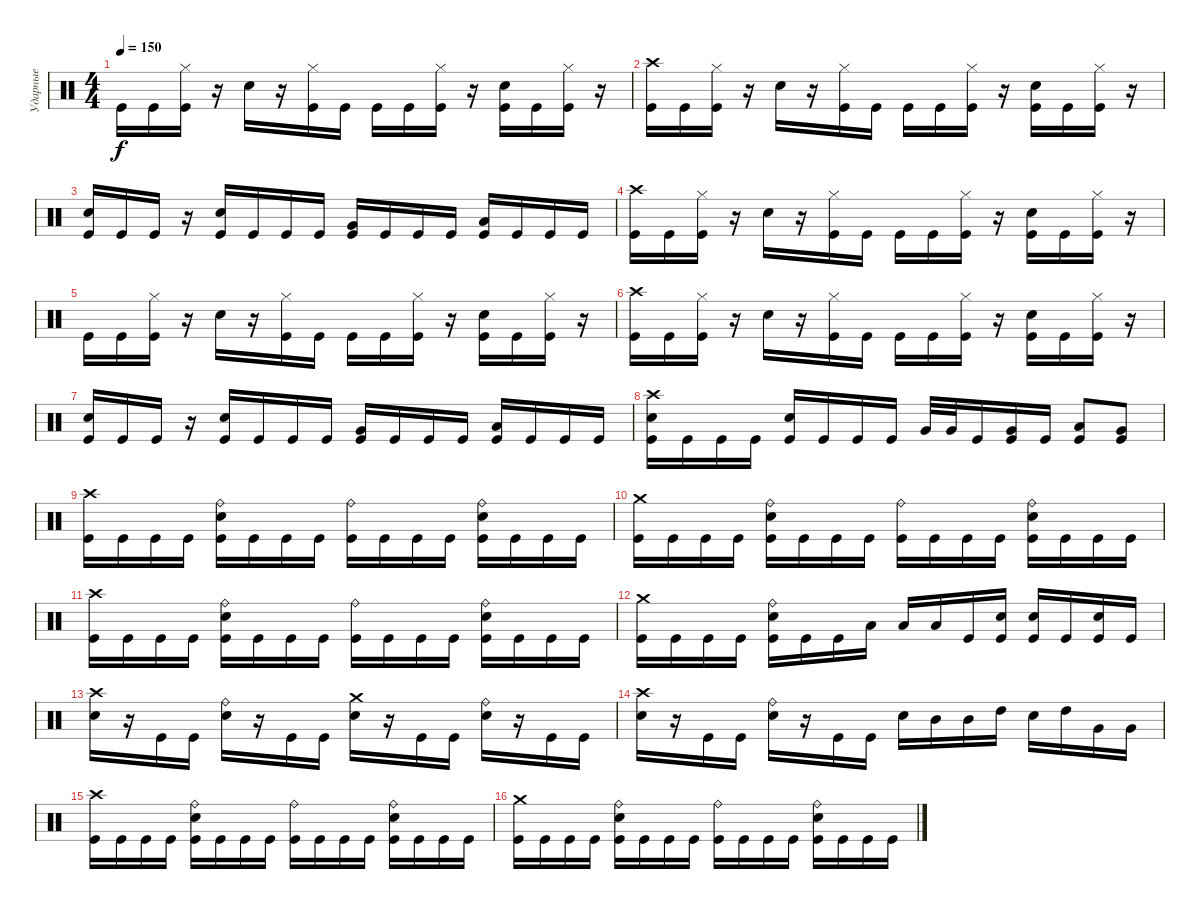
\track ("Ударные" "Ударные") {instrument percussion}
\staff {score}
\articulation defaults
\ts (4 4)
\tempo 150
\clef neutral
\ks c "Kick (hit)".16{dy f} "Kick (hit)".16
("Hi-Hat (closed)" "Kick (hit)").16 r.16 "Electric Snare (hit)".16 r.16 ("Hi-Hat (closed)" "Kick (hit)").16 "Kick (hit)".16 "Kick (hit)".16 "Kick (hit)".16 ("Hi-Hat (closed)" "Kick (hit)").16 r.16 ("Electric Snare (hit)" "Kick (hit)").16 "Kick (hit)".16 ("Hi-Hat (closed)" "Kick (hit)").16 r.16 |
("Crash high (hit)" "Kick (hit)").16 "Kick (hit)".16 ("Hi-Hat (closed)" "Kick (hit)").16 r.16 "Electric Snare (hit)".16 r.16 ("Hi-Hat (closed)" "Kick (hit)").16 "Kick (hit)".16 "Kick (hit)".16 "Kick (hit)".16 ("Hi-Hat (closed)" "Kick (hit)").16 r.16 ("Electric Snare (hit)" "Kick (hit)").16 "Kick (hit)".16 ("Hi-Hat (closed)" "Kick (hit)").16 r.16 |
("Electric Snare (hit)" "Kick (hit)").16 "Kick (hit)".16 "Kick (hit)".16 r.16 ("Electric Snare (hit)" "Kick (hit)").16 "Kick (hit)".16 "Kick (hit)".16 "Kick (hit)".16 ("Very Low Tom (hit)" "Kick (hit)").16 "Kick (hit)".16 "Kick (hit)".16 "Kick (hit)".16 ("Low Tom (hit)" "Kick (hit)").16 "Kick (hit)".16 "Kick (hit)".16 "Kick (hit)".16 |
("Crash high (hit)" "Kick (hit)").16 "Kick (hit)".16 ("Hi-Hat (closed)" "Kick (hit)").16 r.16 "Electric Snare (hit)".16 r.16 ("Hi-Hat (closed)" "Kick (hit)").16 "Kick (hit)".16 "Kick (hit)".16 "Kick (hit)".16 ("Hi-Hat (closed)" "Kick (hit)").16 r.16 ("Electric Snare (hit)" "Kick (hit)").16 "Kick (hit)".16 ("Hi-Hat (closed)" "Kick (hit)").16 r.16 |
"Kick (hit)".16 "Kick (hit)".16 ("Hi-Hat (closed)" "Kick (hit)").16 r.16 "Electric Snare (hit)".16 r.16 ("Hi-Hat (closed)" "Kick (hit)").16 "Kick (hit)".16 "Kick (hit)".16 "Kick (hit)".16 ("Hi-Hat (closed)" "Kick (hit)").16 r.16 ("Electric Snare (hit)" "Kick (hit)").16 "Kick (hit)".16 ("Hi-Hat (closed)" "Kick (hit)").16 r.16 |
("Crash high (hit)" "Kick (hit)").16 "Kick (hit)".16 ("Hi-Hat (closed)" "Kick (hit)").16 r.16 "Electric Snare (hit)".16 r.16 ("Hi-Hat (closed)" "Kick (hit)").16 "Kick (hit)".16 "Kick (hit)".16 "Kick (hit)".16 ("Hi-Hat (closed)" "Kick (hit)").16 r.16 ("Electric Snare (hit)" "Kick (hit)").16 "Kick (hit)".16 ("Hi-Hat (closed)" "Kick (hit)").16 r.16 |
("Electric Snare (hit)" "Kick (hit)").16 "Kick (hit)".16 "Kick (hit)".16 r.16 ("Electric Snare (hit)" "Kick (hit)").16 "Kick (hit)".16 "Kick (hit)".16 "Kick (hit)".16 ("Very Low Tom (hit)" "Kick (hit)").16 "Kick (hit)".16 "Kick (hit)".16 "Kick (hit)".16 ("Low Tom (hit)" "Kick (hit)").16 "Kick (hit)".16 "Kick (hit)".16 "Kick (hit)".16 |
("Crash high (hit)" "Electric Snare (hit)" "Kick (hit)").16 "Kick (hit)".16 "Kick (hit)".16 "Kick (hit)".16 ("Electric Snare (hit)" "Kick (hit)").16 "Kick (hit)".16 "Kick (hit)".16 "Kick (hit)".16 "Very Low Tom (hit)".32 "Very Low Tom (hit)".32 "Kick (hit)".16 ("Very Low Tom (hit)" "Kick (hit)").16 "Kick (hit)".16 ("Low Tom (hit)" "Kick (hit)").8 ("Very Low Tom (hit)" "Kick (hit)").8 |
("Crash high (hit)" "Kick (hit)").16 "Kick (hit)".16 "Kick (hit)".16 "Kick (hit)".16 ("Ride (bell)" "Electric Snare (hit)" "Kick (hit)").16 "Kick (hit)".16 "Kick (hit)".16 "Kick (hit)".16 ("Ride (bell)" "Kick (hit)").16 "Kick (hit)".16 "Kick (hit)".16 "Kick (hit)".16 ("Ride (bell)" "Electric Snare (hit)" "Kick (hit)").16 "Kick (hit)".16 "Kick (hit)".16 "Kick (hit)".16 |
("Crash medium (hit)" "Kick (hit)").16 "Kick (hit)".16 "Kick (hit)".16 "Kick (hit)".16 ("Ride (bell)" "Electric Snare (hit)" "Kick (hit)").16 "Kick (hit)".16 "Kick (hit)".16 "Kick (hit)".16 ("Ride (bell)" "Kick (hit)").16 "Kick (hit)".16 "Kick (hit)".16 "Kick (hit)".16 ("Ride (bell)" "Electric Snare (hit)" "Kick (hit)").16 "Kick (hit)".16 "Kick (hit)".16 "Kick (hit)".16 |
("Crash high (hit)" "Kick (hit)").16 "Kick (hit)".16 "Kick (hit)".16 "Kick (hit)".16 ("Ride (bell)" "Electric Snare (hit)" "Kick (hit)").16 "Kick (hit)".16 "Kick (hit)".16 "Kick (hit)".16 ("Ride (bell)" "Kick (hit)").16 "Kick (hit)".16 "Kick (hit)".16 "Kick (hit)".16 ("Ride (bell)" "Electric Snare (hit)" "Kick (hit)").16 "Kick (hit)".16 "Kick (hit)".16 "Kick (hit)".16 |
("Crash medium (hit)" "Kick (hit)").16 "Kick (hit)".16 "Kick (hit)".16 "Kick (hit)".16 ("Ride (bell)" "Electric Snare (hit)" "Kick (hit)").16 "Kick (hit)".16 "Kick (hit)".16 "Low Tom (hit)".16 "Low Tom (hit)".16 "Low Tom (hit)".16 "Kick (hit)".16 ("Electric Snare (hit)" "Kick (hit)").16 ("Electric Snare (hit)" "Kick (hit)").16 "Kick (hit)".16 ("Electric Snare (hit)" "Kick (hit)").16 "Kick (hit)".16 |
("Crash high (hit)" "Electric Snare (hit)").16 r.16 "Kick (hit)".16 "Kick (hit)".16 ("Ride (bell)" "Electric Snare (hit)").16 r.16 "Kick (hit)".16 "Kick (hit)".16 ("Crash medium (hit)" "Electric Snare (hit)").16 r.16 "Kick (hit)".16 "Kick (hit)".16 ("Ride (bell)" "Electric Snare (hit)").16 r.16 "Kick (hit)".16 "Kick (hit)".16 |
("Crash high (hit)" "Electric Snare (hit)").16 r.16 "Kick (hit)".16 "Kick (hit)".16 ("Ride (bell)" "Electric Snare (hit)").16 r.16 "Kick (hit)".16 "Kick (hit)".16 "Electric Snare (hit)".16 "Mid Tom (hit)".16 "Mid Tom (hit)".16 "High Tom (hit)".16 "Electric Snare (hit)".16 "High Tom (hit)".16 "Very Low Tom (hit)".16 "Very Low Tom (hit)".16 |
("Crash high (hit)" "Kick (hit)").16 "Kick (hit)".16 "Kick (hit)".16 "Kick (hit)".16 ("Ride (bell)" "Electric Snare (hit)" "Kick (hit)").16 "Kick (hit)".16 "Kick (hit)".16 "Kick (hit)".16 ("Ride (bell)" "Kick (hit)").16 "Kick (hit)".16 "Kick (hit)".16 "Kick (hit)".16 ("Ride (bell)" "Electric Snare (hit)" "Kick (hit)").16 "Kick (hit)".16 "Kick (hit)".16 "Kick (hit)".16 |
("Crash medium (hit)" "Kick (hit)").16 "Kick (hit)".16 "Kick (hit)".16 "Kick (hit)".16 ("Ride (bell)" "Electric Snare (hit)" "Kick (hit)").16 "Kick (hit)".16 "Kick (hit)".16 "Kick (hit)".16 ("Ride (bell)" "Kick (hit)").16 "Kick (hit)".16 "Kick (hit)".16 "Kick (hit)".16 ("Ride (bell)" "Electric Snare (hit)" "Kick (hit)").16 "Kick (hit)".16 "Kick (hit)".16 "Kick (hit)".16
